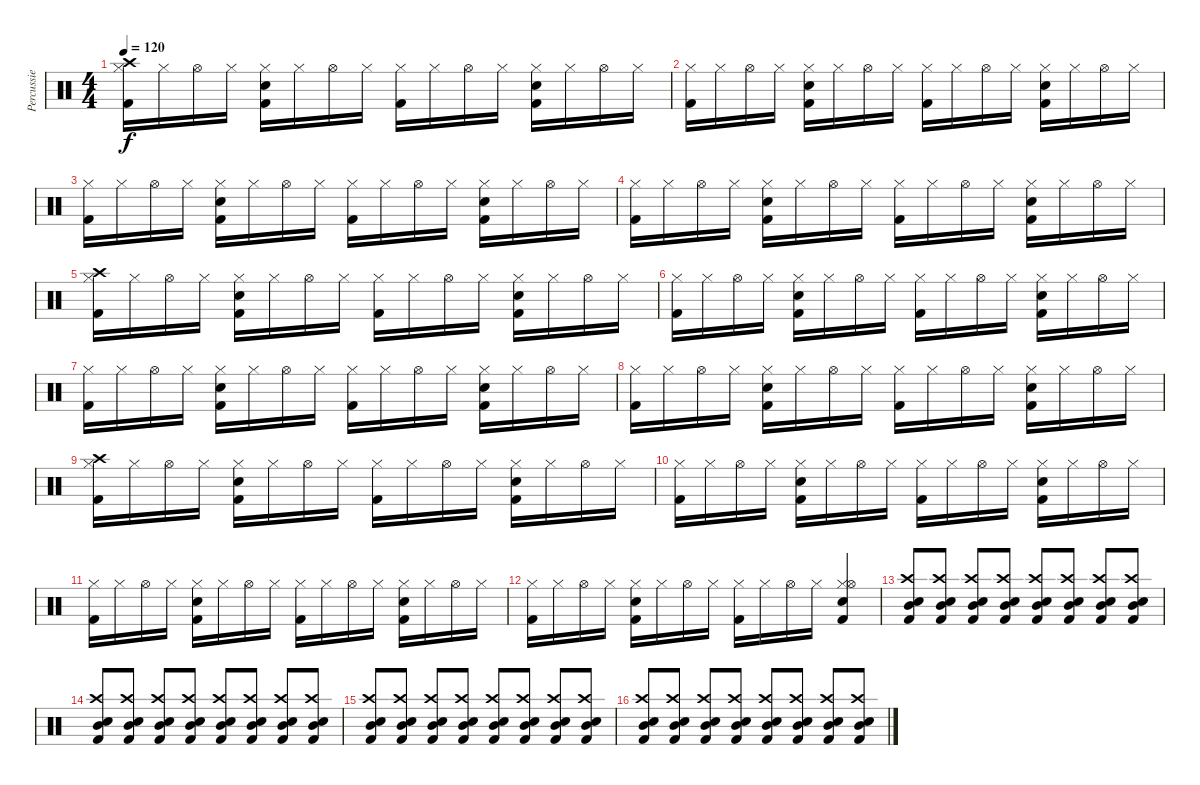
\track ("Percussie" "Percussie") {instrument percussion}
\staff {score}
\articulation defaults
\ts (4 4)
\tempo 120
\clef neutral
\ks c
("Kick (hit) 2" "Hi-Hat (closed)" "Crash high (hit)").16{dy f} "Hi-Hat (closed)".16 "Hi-Hat (open)".16 "Hi-Hat (closed)".16 ("Kick (hit) 2" "Hi-Hat (closed)" "Snare (hit) 2").16 "Hi-Hat (closed)".16 "Hi-Hat (open)".16 "Hi-Hat (closed)".16 ("Kick (hit) 2" "Hi-Hat (closed)").16 "Hi-Hat (closed)".16 "Hi-Hat (open)".16 "Hi-Hat (closed)".16 ("Kick (hit) 2" "Hi-Hat (closed)" "Snare (hit) 2").16 "Hi-Hat (closed)".16 "Hi-Hat (open)".16 "Hi-Hat (closed)".16 |
("Kick (hit) 2" "Hi-Hat (closed)").16 "Hi-Hat (closed)".16 "Hi-Hat (open)".16 "Hi-Hat (closed)".16 ("Kick (hit) 2" "Hi-Hat (closed)" "Snare (hit) 2").16 "Hi-Hat (closed)".16 "Hi-Hat (open)".16 "Hi-Hat (closed)".16 ("Kick (hit) 2" "Hi-Hat (closed)").16 "Hi-Hat (closed)".16 "Hi-Hat (open)".16 "Hi-Hat (closed)".16 ("Kick (hit) 2" "Hi-Hat (closed)" "Snare (hit) 2").16 "Hi-Hat (closed)".16 "Hi-Hat (open)".16 "Hi-Hat (closed)".16 |
("Kick (hit) 2" "Hi-Hat (closed)").16 "Hi-Hat (closed)".16 "Hi-Hat (open)".16 "Hi-Hat (closed)".16 ("Kick (hit) 2" "Hi-Hat (closed)" "Snare (hit) 2").16 "Hi-Hat (closed)".16 "Hi-Hat (open)".16 "Hi-Hat (closed)".16 ("Kick (hit) 2" "Hi-Hat (closed)").16 "Hi-Hat (closed)".16 "Hi-Hat (open)".16 "Hi-Hat (closed)".16 ("Kick (hit) 2" "Hi-Hat (closed)" "Snare (hit) 2").16 "Hi-Hat (closed)".16 "Hi-Hat (open)".16 "Hi-Hat (closed)".16 |
("Kick (hit) 2" "Hi-Hat (closed)").16 "Hi-Hat (closed)".16 "Hi-Hat (open)".16 "Hi-Hat (closed)".16 ("Kick (hit) 2" "Hi-Hat (closed)" "Snare (hit) 2").16 "Hi-Hat (closed)".16 "Hi-Hat (open)".16 "Hi-Hat (closed)".16 ("Kick (hit) 2" "Hi-Hat (closed)").16 "Hi-Hat (closed)".16 "Hi-Hat (open)".16 "Hi-Hat (closed)".16 ("Kick (hit) 2" "Hi-Hat (closed)" "Snare (hit) 2").16 "Hi-Hat (closed)".16 "Hi-Hat (open)".16 "Hi-Hat (closed)".16 |
("Kick (hit) 2" "Hi-Hat (closed)" "Crash high (hit)").16 "Hi-Hat (closed)".16 "Hi-Hat (open)".16 "Hi-Hat (closed)".16 ("Kick (hit) 2" "Hi-Hat (closed)" "Snare (hit) 2").16 "Hi-Hat (closed)".16 "Hi-Hat (open)".16 "Hi-Hat (closed)".16 ("Kick (hit) 2" "Hi-Hat (closed)").16 "Hi-Hat (closed)".16 "Hi-Hat (open)".16 "Hi-Hat (closed)".16 ("Kick (hit) 2" "Hi-Hat (closed)" "Snare (hit) 2").16 "Hi-Hat (closed)".16 "Hi-Hat (open)".16 "Hi-Hat (closed)".16 |
("Kick (hit) 2" "Hi-Hat (closed)").16 "Hi-Hat (closed)".16 "Hi-Hat (open)".16 "Hi-Hat (closed)".16 ("Kick (hit) 2" "Hi-Hat (closed)" "Snare (hit) 2").16 "Hi-Hat (closed)".16 "Hi-Hat (open)".16 "Hi-Hat (closed)".16 ("Kick (hit) 2" "Hi-Hat (closed)").16 "Hi-Hat (closed)".16 "Hi-Hat (open)".16 "Hi-Hat (closed)".16 ("Kick (hit) 2" "Hi-Hat (closed)" "Snare (hit) 2").16 "Hi-Hat (closed)".16 "Hi-Hat (open)".16 "Hi-Hat (closed)".16 |
("Kick (hit) 2" "Hi-Hat (closed)").16 "Hi-Hat (closed)".16 "Hi-Hat (open)".16 "Hi-Hat (closed)".16 ("Kick (hit) 2" "Hi-Hat (closed)" "Snare (hit) 2").16 "Hi-Hat (closed)".16 "Hi-Hat (open)".16 "Hi-Hat (closed)".16 ("Kick (hit) 2" "Hi-Hat (closed)").16 "Hi-Hat (closed)".16 "Hi-Hat (open)".16 "Hi-Hat (closed)".16 ("Kick (hit) 2" "Hi-Hat (closed)" "Snare (hit) 2").16 "Hi-Hat (closed)".16 "Hi-Hat (open)".16 "Hi-Hat (closed)".16 |
("Kick (hit) 2" "Hi-Hat (closed)").16 "Hi-Hat (closed)".16 "Hi-Hat (open)".16 "Hi-Hat (closed)".16 ("Kick (hit) 2" "Hi-Hat (closed)" "Snare (hit) 2").16 "Hi-Hat (closed)".16 "Hi-Hat (open)".16 "Hi-Hat (closed)".16 ("Kick (hit) 2" "Hi-Hat (closed)").16 "Hi-Hat (closed)".16 "Hi-Hat (open)".16 "Hi-Hat (closed)".16 ("Kick (hit) 2" "Hi-Hat (closed)" "Snare (hit) 2").16 "Hi-Hat (closed)".16 "Hi-Hat (open)".16 "Hi-Hat (closed)".16 |
("Kick (hit) 2" "Hi-Hat (closed)" "Crash high (hit)").16 "Hi-Hat (closed)".16 "Hi-Hat (open)".16 "Hi-Hat (closed)".16 ("Kick (hit) 2" "Hi-Hat (closed)" "Snare (hit) 2").16 "Hi-Hat (closed)".16 "Hi-Hat (open)".16 "Hi-Hat (closed)".16 ("Kick (hit) 2" "Hi-Hat (closed)").16 "Hi-Hat (closed)".16 "Hi-Hat (open)".16 "Hi-Hat (closed)".16 ("Kick (hit) 2" "Hi-Hat (closed)" "Snare (hit) 2").16 "Hi-Hat (closed)".16 "Hi-Hat (open)".16 "Hi-Hat (closed)".16 |
("Kick (hit) 2" "Hi-Hat (closed)").16 "Hi-Hat (closed)".16 "Hi-Hat (open)".16 "Hi-Hat (closed)".16 ("Kick (hit) 2" "Hi-Hat (closed)" "Snare (hit) 2").16 "Hi-Hat (closed)".16 "Hi-Hat (open)".16 "Hi-Hat (closed)".16 ("Kick (hit) 2" "Hi-Hat (closed)").16 "Hi-Hat (closed)".16 "Hi-Hat (open)".16 "Hi-Hat (closed)".16 ("Kick (hit) 2" "Hi-Hat (closed)" "Snare (hit) 2").16 "Hi-Hat (closed)".16 "Hi-Hat (open)".16 "Hi-Hat (closed)".16 |
("Kick (hit) 2" "Hi-Hat (closed)").16 "Hi-Hat (closed)".16 "Hi-Hat (open)".16 "Hi-Hat (closed)".16 ("Kick (hit) 2" "Hi-Hat (closed)" "Snare (hit) 2").16 "Hi-Hat (closed)".16 "Hi-Hat (open)".16 "Hi-Hat (closed)".16 ("Kick (hit) 2" "Hi-Hat (closed)").16 "Hi-Hat (closed)".16 "Hi-Hat (open)".16 "Hi-Hat (closed)".16 ("Kick (hit) 2" "Hi-Hat (closed)" "Snare (hit) 2").16 "Hi-Hat (closed)".16 "Hi-Hat (open)".16 "Hi-Hat (closed)".16 |
("Kick (hit) 2" "Hi-Hat (closed)").16 "Hi-Hat (closed)".16 "Hi-Hat (open)".16 "Hi-Hat (closed)".16 ("Kick (hit) 2" "Hi-Hat (closed)" "Snare (hit) 2").16 "Hi-Hat (closed)".16 "Hi-Hat (open)".16 "Hi-Hat (closed)".16 ("Kick (hit) 2" "Hi-Hat (closed)").16 "Hi-Hat (closed)".16 "Hi-Hat (open)".16 "Hi-Hat (closed)".16 ("Kick (hit) 2" "Hi-Hat (closed)" "Snare (hit) 2" "Hi-Hat (open)").4 |
("Kick (hit) 2" "Electric Snare (hit)" "Mid Tom (hit)" "Crash high (hit)").8 ("Kick (hit) 2" "Electric Snare (hit)" "Mid Tom (hit)" "Crash high (hit)").8 ("Kick (hit) 2" "Electric Snare (hit)" "Mid Tom (hit)" "Crash high (hit)").8 ("Kick (hit) 2" "Electric Snare (hit)" "Mid Tom (hit)" "Crash high (hit)").8 ("Kick (hit) 2" "Electric Snare (hit)" "Mid Tom (hit)" "Crash high (hit)").8 ("Kick (hit) 2" "Electric Snare (hit)" "Mid Tom (hit)" "Crash high (hit)").8 ("Kick (hit) 2" "Electric Snare (hit)" "Mid Tom (hit)" "Crash high (hit)").8 ("Kick (hit) 2" "Electric Snare (hit)" "Mid Tom (hit)" "Crash high (hit)").8 |
("Kick (hit) 2" "Electric Snare (hit)" "Mid Tom (hit)" "Crash high (hit)").8 ("Kick (hit) 2" "Electric Snare (hit)" "Mid Tom (hit)" "Crash high (hit)").8 ("Kick (hit) 2" "Electric Snare (hit)" "Mid Tom (hit)" "Crash high (hit)").8 ("Kick (hit) 2" "Electric Snare (hit)" "Mid Tom (hit)" "Crash high (hit)").8 ("Kick (hit) 2" "Electric Snare (hit)" "Mid Tom (hit)" "Crash high (hit)").8 ("Kick (hit) 2" "Electric Snare (hit)" "Mid Tom (hit)" "Crash high (hit)").8 ("Kick (hit) 2" "Electric Snare (hit)" "Mid Tom (hit)" "Crash high (hit)").8 ("Kick (hit) 2" "Electric Snare (hit)" "Mid Tom (hit)" "Crash high (hit)").8 |
("Kick (hit) 2" "Electric Snare (hit)" "Mid Tom (hit)" "Crash high (hit)").8 ("Kick (hit) 2" "Electric Snare (hit)" "Mid Tom (hit)" "Crash high (hit)").8 ("Kick (hit) 2" "Electric Snare (hit)" "Mid Tom (hit)" "Crash high (hit)").8 ("Kick (hit) 2" "Electric Snare (hit)" "Mid Tom (hit)" "Crash high (hit)").8 ("Kick (hit) 2" "Electric Snare (hit)" "Mid Tom (hit)" "Crash high (hit)").8 ("Kick (hit) 2" "Electric Snare (hit)" "Mid Tom (hit)" "Crash high (hit)").8 ("Kick (hit) 2" "Electric Snare (hit)" "Mid Tom (hit)" "Crash high (hit)").8 ("Kick (hit) 2" "Electric Snare (hit)" "Mid Tom (hit)" "Crash high (hit)").8 |
("Kick (hit) 2" "Electric Snare (hit)" "Mid Tom (hit)" "Crash high (hit)").8 ("Kick (hit) 2" "Electric Snare (hit)" "Mid Tom (hit)" "Crash high (hit)").8 ("Kick (hit) 2" "Electric Snare (hit)" "Mid Tom (hit)" "Crash high (hit)").8 ("Kick (hit) 2" "Electric Snare (hit)" "Mid Tom (hit)" "Crash high (hit)").8 ("Kick (hit) 2" "Electric Snare (hit)" "Mid Tom (hit)" "Crash high (hit)").8 ("Kick (hit) 2" "Electric Snare (hit)" "Mid Tom (hit)" "Crash high (hit)").8 ("Kick (hit) 2" "Electric Snare (hit)" "Mid Tom (hit)" "Crash high (hit)").8 ("Kick (hit) 2" "Electric Snare (hit)" "Mid Tom (hit)" "Crash high (hit)").8
